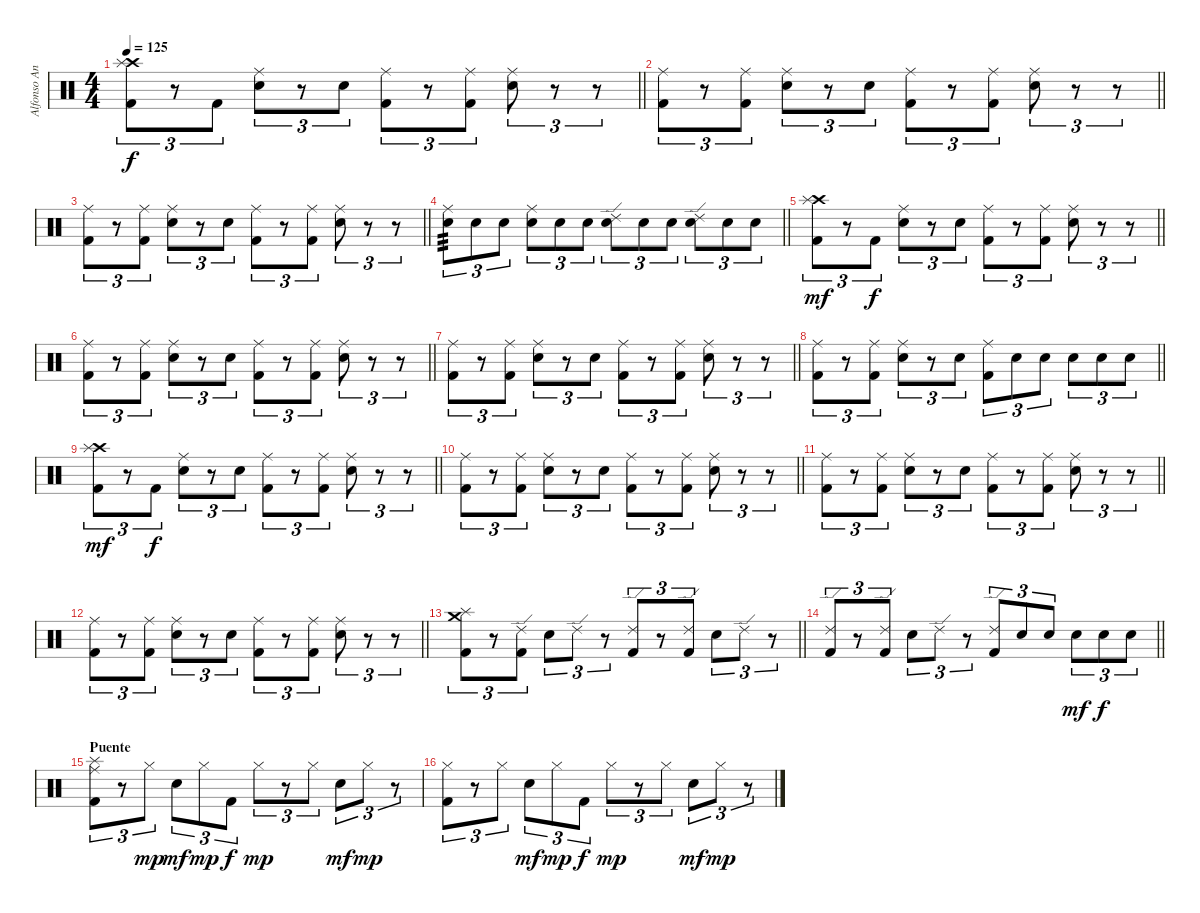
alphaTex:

\track ("Alfonso Andre" "Alfonso An") {instrument percussion}
\staff {score}
\articulation defaults
\ts (4 4)
\tempo 125
\clef neutral
\barLineRight lightlight
\ks c
("Crash high (hit)" "Splash (hit)" "Kick (hit) 2").8{tu (3 2) dy f} r.8{tu (3 2)} "Kick (hit) 2".8{tu (3 2)} ("Ride (middle)" "Electric Snare (hit)").8{tu (3 2)} r.8{tu (3 2)} "Electric Snare (hit)".8{tu (3 2)} ("Ride (middle)" "Kick (hit) 2").8{tu (3 2)} r.8{tu (3 2)} ("Ride (middle)" "Kick (hit) 2").8{tu (3 2)} ("Ride (middle)" "Electric Snare (hit)").8{tu (3 2)} r.8{tu (3 2)} r.8{tu (3 2)} |
\barLineRight lightlight
("Ride (middle)" "Kick (hit) 2").8{tu (3 2)} r.8{tu (3 2)} ("Ride (middle)" "Kick (hit) 2").8{tu (3 2)} ("Ride (middle)" "Electric Snare (hit)").8{tu (3 2)} r.8{tu (3 2)} "Electric Snare (hit)".8{tu (3 2)} ("Ride (middle)" "Kick (hit) 2").8{tu (3 2)} r.8{tu (3 2)} ("Ride (middle)" "Kick (hit) 2").8{tu (3 2)} ("Ride (middle)" "Electric Snare (hit)").8{tu (3 2)} r.8{tu (3 2)} r.8{tu (3 2)} |
\barLineRight lightlight
("Ride (middle)" "Kick (hit) 2").8{tu (3 2)} r.8{tu (3 2)} ("Ride (middle)" "Kick (hit) 2").8{tu (3 2)} ("Ride (middle)" "Electric Snare (hit)").8{tu (3 2)} r.8{tu (3 2)} "Electric Snare (hit)".8{tu (3 2)} ("Ride (middle)" "Kick (hit) 2").8{tu (3 2)} r.8{tu (3 2)} ("Ride (middle)" "Kick (hit) 2").8{tu (3 2)} ("Ride (middle)" "Electric Snare (hit)").8{tu (3 2)} r.8{tu (3 2)} r.8{tu (3 2)} |
\barLineRight lightlight
("Ride (middle)" "Electric Snare (hit)").8{tu (3 2) tp 3} "Electric Snare (hit)".8{tu (3 2)} "Electric Snare (hit)".8{tu (3 2)} ("Ride (middle)" "Electric Snare (hit)").8{tu (3 2)} "Electric Snare (hit)".8{tu (3 2)} "Electric Snare (hit)".8{tu (3 2)} ("Ride (edge) 2" "Electric Snare (hit)").8{tu (3 2)} "Electric Snare (hit)".8{tu (3 2)} "Electric Snare (hit)".8{tu (3 2)} ("Ride (edge) 2" "Electric Snare (hit)").8{tu (3 2)} "Electric Snare (hit)".8{tu (3 2)} "Electric Snare (hit)".8{tu (3 2)} |
\barLineRight lightlight
("Crash high (hit)" "Splash (hit)" "Kick (hit) 2").8{tu (3 2) dy mf} r.8{tu (3 2)} "Kick (hit) 2".8{tu (3 2) dy f} ("Ride (middle)" "Electric Snare (hit)").8{tu (3 2)} r.8{tu (3 2)} "Electric Snare (hit)".8{tu (3 2)} ("Ride (middle)" "Kick (hit) 2").8{tu (3 2)} r.8{tu (3 2)} ("Ride (middle)" "Kick (hit) 2").8{tu (3 2)} ("Ride (middle)" "Electric Snare (hit)").8{tu (3 2)} r.8{tu (3 2)} r.8{tu (3 2)} |
\barLineRight lightlight
("Ride (middle)" "Kick (hit) 2").8{tu (3 2)} r.8{tu (3 2)} ("Ride (middle)" "Kick (hit) 2").8{tu (3 2)} ("Ride (middle)" "Electric Snare (hit)").8{tu (3 2)} r.8{tu (3 2)} "Electric Snare (hit)".8{tu (3 2)} ("Ride (middle)" "Kick (hit) 2").8{tu (3 2)} r.8{tu (3 2)} ("Ride (middle)" "Kick (hit) 2").8{tu (3 2)} ("Ride (middle)" "Electric Snare (hit)").8{tu (3 2)} r.8{tu (3 2)} r.8{tu (3 2)} |
\barLineRight lightlight
("Ride (middle)" "Kick (hit) 2").8{tu (3 2)} r.8{tu (3 2)} ("Ride (middle)" "Kick (hit) 2").8{tu (3 2)} ("Ride (middle)" "Electric Snare (hit)").8{tu (3 2)} r.8{tu (3 2)} "Electric Snare (hit)".8{tu (3 2)} ("Ride (middle)" "Kick (hit) 2").8{tu (3 2)} r.8{tu (3 2)} ("Ride (middle)" "Kick (hit) 2").8{tu (3 2)} ("Ride (middle)" "Electric Snare (hit)").8{tu (3 2)} r.8{tu (3 2)} r.8{tu (3 2)} |
\barLineRight lightlight
("Ride (middle)" "Kick (hit) 2").8{tu (3 2)} r.8{tu (3 2)} ("Ride (middle)" "Kick (hit) 2").8{tu (3 2)} ("Ride (middle)" "Electric Snare (hit)").8{tu (3 2)} r.8{tu (3 2)} "Electric Snare (hit)".8{tu (3 2)} ("Ride (middle)" "Kick (hit) 2").8{tu (3 2)} "Electric Snare (hit)".8{tu (3 2)} "Electric Snare (hit)".8{tu (3 2)} "Electric Snare (hit)".8{tu (3 2)} "Electric Snare (hit)".8{tu (3 2)} "Electric Snare (hit)".8{tu (3 2)} |
\barLineRight lightlight
("Crash high (hit)" "Splash (hit)" "Kick (hit) 2").8{tu (3 2) dy mf} r.8{tu (3 2)} "Kick (hit) 2".8{tu (3 2) dy f} ("Ride (middle)" "Electric Snare (hit)").8{tu (3 2)} r.8{tu (3 2)} "Electric Snare (hit)".8{tu (3 2)} ("Ride (middle)" "Kick (hit) 2").8{tu (3 2)} r.8{tu (3 2)} ("Ride (middle)" "Kick (hit) 2").8{tu (3 2)} ("Ride (middle)" "Electric Snare (hit)").8{tu (3 2)} r.8{tu (3 2)} r.8{tu (3 2)} |
\barLineRight lightlight
("Ride (middle)" "Kick (hit) 2").8{tu (3 2)} r.8{tu (3 2)} ("Ride (middle)" "Kick (hit) 2").8{tu (3 2)} ("Ride (middle)" "Electric Snare (hit)").8{tu (3 2)} r.8{tu (3 2)} "Electric Snare (hit)".8{tu (3 2)} ("Ride (middle)" "Kick (hit) 2").8{tu (3 2)} r.8{tu (3 2)} ("Ride (middle)" "Kick (hit) 2").8{tu (3 2)} ("Ride (middle)" "Electric Snare (hit)").8{tu (3 2)} r.8{tu (3 2)} r.8{tu (3 2)} |
\barLineRight lightlight
("Ride (middle)" "Kick (hit) 2").8{tu (3 2)} r.8{tu (3 2)} ("Ride (middle)" "Kick (hit) 2").8{tu (3 2)} ("Ride (middle)" "Electric Snare (hit)").8{tu (3 2)} r.8{tu (3 2)} "Electric Snare (hit)".8{tu (3 2)} ("Ride (middle)" "Kick (hit) 2").8{tu (3 2)} r.8{tu (3 2)} ("Ride (middle)" "Kick (hit) 2").8{tu (3 2)} ("Ride (middle)" "Electric Snare (hit)").8{tu (3 2)} r.8{tu (3 2)} r.8{tu (3 2)} |
\barLineRight lightlight
("Ride (middle)" "Kick (hit) 2").8{tu (3 2)} r.8{tu (3 2)} ("Ride (middle)" "Kick (hit) 2").8{tu (3 2)} ("Ride (middle)" "Electric Snare (hit)").8{tu (3 2)} r.8{tu (3 2)} "Electric Snare (hit)".8{tu (3 2)} ("Ride (middle)" "Kick (hit) 2").8{tu (3 2)} r.8{tu (3 2)} ("Ride (middle)" "Kick (hit) 2").8{tu (3 2)} ("Ride (middle)" "Electric Snare (hit)").8{tu (3 2)} r.8{tu (3 2)} r.8{tu (3 2)} |
\barLineRight lightlight
("Crash medium (hit)" "Splash (hit)" "Kick (hit) 2").8{tu (3 2)} r.8{tu (3 2)} ("Ride (edge) 2" "Kick (hit) 2").8{tu (3 2)} "Electric Snare (hit)".8{tu (3 2)} "Ride (edge) 2".8{tu (3 2)} r.8{tu (3 2)} ("Ride (edge) 2" "Kick (hit) 2").8{tu (3 2)} r.8{tu (3 2)} ("Ride (edge) 2" "Kick (hit) 2").8{tu (3 2)} "Electric Snare (hit)".8{tu (3 2)} "Ride (edge) 2".8{tu (3 2)} r.8{tu (3 2)} |
\barLineRight lightlight
("Ride (edge) 2" "Kick (hit) 2").8{tu (3 2)} r.8{tu (3 2)} ("Ride (edge) 2" "Kick (hit) 2").8{tu (3 2)} "Electric Snare (hit)".8{tu (3 2)} "Ride (edge) 2".8{tu (3 2)} r.8{tu (3 2)} ("Ride (edge) 2" "Kick (hit) 2").8{tu (3 2)} "Electric Snare (hit)".8{tu (3 2)} "Electric Snare (hit)".8{tu (3 2)} "Electric Snare (hit)".8{tu (3 2) dy mf} "Electric Snare (hit)".8{tu (3 2) dy f} "Electric Snare (hit)".8{tu (3 2)} |
\section ("" "Puente")
("Splash (hit)" "Ride (middle)" "Kick (hit) 2").8{tu (3 2)} r.8{tu (3 2)} "Hi-Hat (closed)".8{tu (3 2) dy mp} "Electric Snare (hit)".8{tu (3 2) dy mf} "Hi-Hat (closed)".8{tu (3 2) dy mp} "Kick (hit) 2".8{tu (3 2) dy f} "Hi-Hat (closed)".8{tu (3 2) dy mp} r.8{tu (3 2)} "Hi-Hat (closed)".8{tu (3 2)} "Electric Snare (hit)".8{tu (3 2) dy mf} "Hi-Hat (closed)".8{tu (3 2) dy mp} r.8{tu (3 2)} |
("Hi-Hat (closed)" "Kick (hit) 2").8{tu (3 2)} r.8{tu (3 2)} "Hi-Hat (closed)".8{tu (3 2)} "Electric Snare (hit)".8{tu (3 2) dy mf} "Hi-Hat (closed)".8{tu (3 2) dy mp} "Kick (hit) 2".8{tu (3 2) dy f} "Hi-Hat (closed)".8{tu (3 2) dy mp} r.8{tu (3 2)} "Hi-Hat (closed)".8{tu (3 2)} "Electric Snare (hit)".8{tu (3 2) dy mf} "Hi-Hat (closed)".8{tu (3 2) dy mp} r.8{tu (3 2)}
